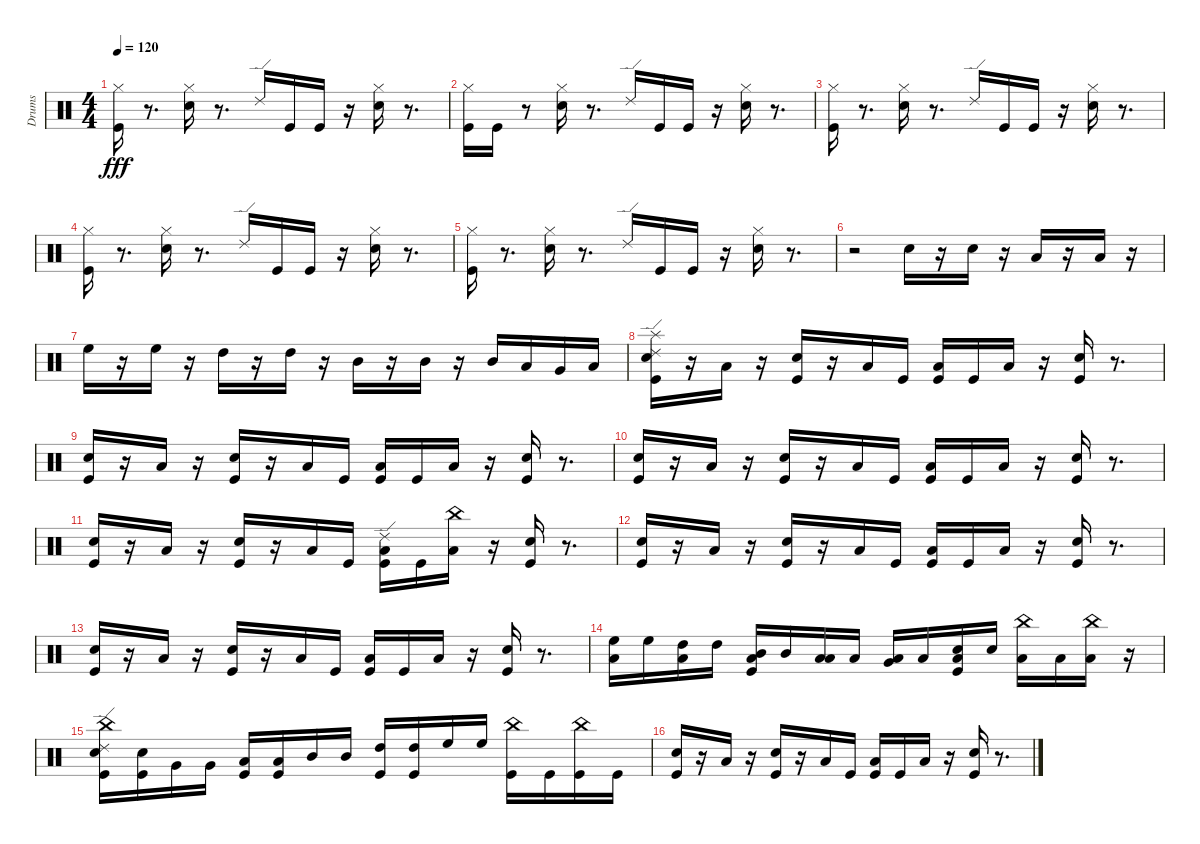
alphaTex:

\track ("Drums" "Drums") {instrument percussion}
\staff {score}
\articulation defaults
\ts (4 4)
\tempo 120
\clef neutral
\ks c
("Hi-Hat (closed)" "Kick (hit)").16{dy fff} r.8{d} ("Hi-Hat (closed)" "Snare (hit) 2").16 r.8{d} "Ride (edge) 2".16 "Kick (hit)".16 "Kick (hit)".16 r.16 ("Hi-Hat (closed)" "Snare (hit) 2").16 r.8{d} |
("Hi-Hat (closed)" "Kick (hit)").16 "Kick (hit)".16 r.8 ("Hi-Hat (closed)" "Snare (hit) 2").16 r.8{d} "Ride (edge) 2".16 "Kick (hit)".16 "Kick (hit)".16 r.16 ("Hi-Hat (closed)" "Snare (hit) 2").16 r.8{d} |
("Hi-Hat (closed)" "Kick (hit)").16 r.8{d} ("Hi-Hat (closed)" "Snare (hit) 2").16 r.8{d} "Ride (edge) 2".16 "Kick (hit)".16 "Kick (hit)".16 r.16 ("Hi-Hat (closed)" "Snare (hit) 2").16 r.8{d} |
("Hi-Hat (closed)" "Kick (hit)").16 r.8{d} ("Hi-Hat (closed)" "Snare (hit) 2").16 r.8{d} "Ride (edge) 2".16 "Kick (hit)".16 "Kick (hit)".16 r.16 ("Hi-Hat (closed)" "Snare (hit) 2").16 r.8{d} |
("Hi-Hat (closed)" "Kick (hit)").16 r.8{d} ("Hi-Hat (closed)" "Snare (hit) 2").16 r.8{d} "Ride (edge) 2".16 "Kick (hit)".16 "Kick (hit)".16 r.16 ("Hi-Hat (closed)" "Snare (hit) 2").16 r.8{d} |
r.2 "Electric Snare (hit)".16 r.16 "Electric Snare (hit)".16 r.16 "Low Tom (hit)".16 r.16 "Low Tom (hit)".16 r.16 |
"High Floor Tom (hit)".16 r.16 "High Floor Tom (hit)".16 r.16 "High Tom (hit)".16 r.16 "High Tom (hit)".16 r.16 "Mid Tom (hit)".16 r.16 "Mid Tom (hit)".16 r.16 "Mid Tom (hit)".16 "Low Tom (hit)".16 "Very Low Tom (hit)".16 "Low Floor Tom (hit)".16 |
("Splash (hit)" "Ride (edge) 2" "Kick (hit)" "Electric Snare (hit)").16 r.16 "Low Floor Tom (hit)".16 r.16 ("Kick (hit)" "Electric Snare (hit)").16 r.16 "Low Floor Tom (hit)".16 "Kick (hit)".16 ("Low Floor Tom (hit)" "Kick (hit)").16 "Kick (hit)".16 "Low Floor Tom (hit)".16 r.16 ("Kick (hit)" "Electric Snare (hit)").16 r.8{d} |
("Kick (hit)" "Electric Snare (hit)").16 r.16 "Low Floor Tom (hit)".16 r.16 ("Kick (hit)" "Electric Snare (hit)").16 r.16 "Low Floor Tom (hit)".16 "Kick (hit)".16 ("Low Floor Tom (hit)" "Kick (hit)").16 "Kick (hit)".16 "Low Floor Tom (hit)".16 r.16 ("Kick (hit)" "Electric Snare (hit)").16 r.8{d} |
("Kick (hit)" "Electric Snare (hit)").16 r.16 "Low Floor Tom (hit)".16 r.16 ("Kick (hit)" "Electric Snare (hit)").16 r.16 "Low Floor Tom (hit)".16 "Kick (hit)".16 ("Low Floor Tom (hit)" "Kick (hit)").16 "Kick (hit)".16 "Low Floor Tom (hit)".16 r.16 ("Kick (hit)" "Electric Snare (hit)").16 r.8{d} |
("Kick (hit)" "Electric Snare (hit)").16 r.16 "Low Floor Tom (hit)".16 r.16 ("Kick (hit)" "Electric Snare (hit)").16 r.16 "Low Floor Tom (hit)".16 "Kick (hit)".16 ("Low Floor Tom (hit)" "Kick (hit)" "Ride (edge) 2").16 "Kick (hit)".16 ("Low Floor Tom (hit)" "China (hit)").16 r.16 ("Kick (hit)" "Electric Snare (hit)").16 r.8{d} |
("Kick (hit)" "Electric Snare (hit)").16 r.16 "Low Floor Tom (hit)".16 r.16 ("Kick (hit)" "Electric Snare (hit)").16 r.16 "Low Floor Tom (hit)".16 "Kick (hit)".16 ("Low Floor Tom (hit)" "Kick (hit)").16 "Kick (hit)".16 "Low Floor Tom (hit)".16 r.16 ("Kick (hit)" "Electric Snare (hit)").16 r.8{d} |
("Kick (hit)" "Electric Snare (hit)").16 r.16 "Low Floor Tom (hit)".16 r.16 ("Kick (hit)" "Electric Snare (hit)").16 r.16 "Low Floor Tom (hit)".16 "Kick (hit)".16 ("Low Floor Tom (hit)" "Kick (hit)").16 "Kick (hit)".16 "Low Floor Tom (hit)".16 r.16 ("Kick (hit)" "Electric Snare (hit)").16 r.8{d} |
("High Floor Tom (hit)" "Low Floor Tom (hit)").16 "High Floor Tom (hit)".16 ("High Tom (hit)" "Low Floor Tom (hit)").16 "High Tom (hit)".16 ("Mid Tom (hit)" "Low Floor Tom (hit)" "Kick (hit)").16 "Mid Tom (hit)".16 ("Low Tom (hit)" "Low Floor Tom (hit)").16 "Low Tom (hit)".16 ("Very Low Tom (hit)" "Low Floor Tom (hit)").16 "Low Floor Tom (hit)".16 ("Electric Snare (hit)" "Low Floor Tom (hit)" "Kick (hit)").16 "Electric Snare (hit)".16 ("China (hit)" "Low Floor Tom (hit)").16 "Low Floor Tom (hit)".16 ("China (hit)" "Low Floor Tom (hit)").16 r.16 |
("Ride (edge) 2" "China (hit)" "Electric Snare (hit)" "Kick (hit)").16 ("Kick (hit)" "Electric Snare (hit)").16 "Very Low Tom (hit)".16 "Very Low Tom (hit)".16 ("Low Tom (hit)" "Kick (hit)").16 ("Kick (hit)" "Low Tom (hit)").16 "Mid Tom (hit)".16 "Mid Tom (hit)".16 ("High Tom (hit)" "Kick (hit)").16 ("Kick (hit)" "High Tom (hit)").16 "High Floor Tom (hit)".16 "High Floor Tom (hit)".16 ("China (hit)" "Kick (hit)").16 "Kick (hit)".16 ("China (hit)" "Kick (hit)").16 "Kick (hit)".16 |
("Kick (hit)" "Electric Snare (hit)").16 r.16 "Low Floor Tom (hit)".16 r.16 ("Kick (hit)" "Electric Snare (hit)").16 r.16 "Low Floor Tom (hit)".16 "Kick (hit)".16 ("Low Floor Tom (hit)" "Kick (hit)").16 "Kick (hit)".16 "Low Floor Tom (hit)".16 r.16 ("Kick (hit)" "Electric Snare (hit)").16 r.8{d}
